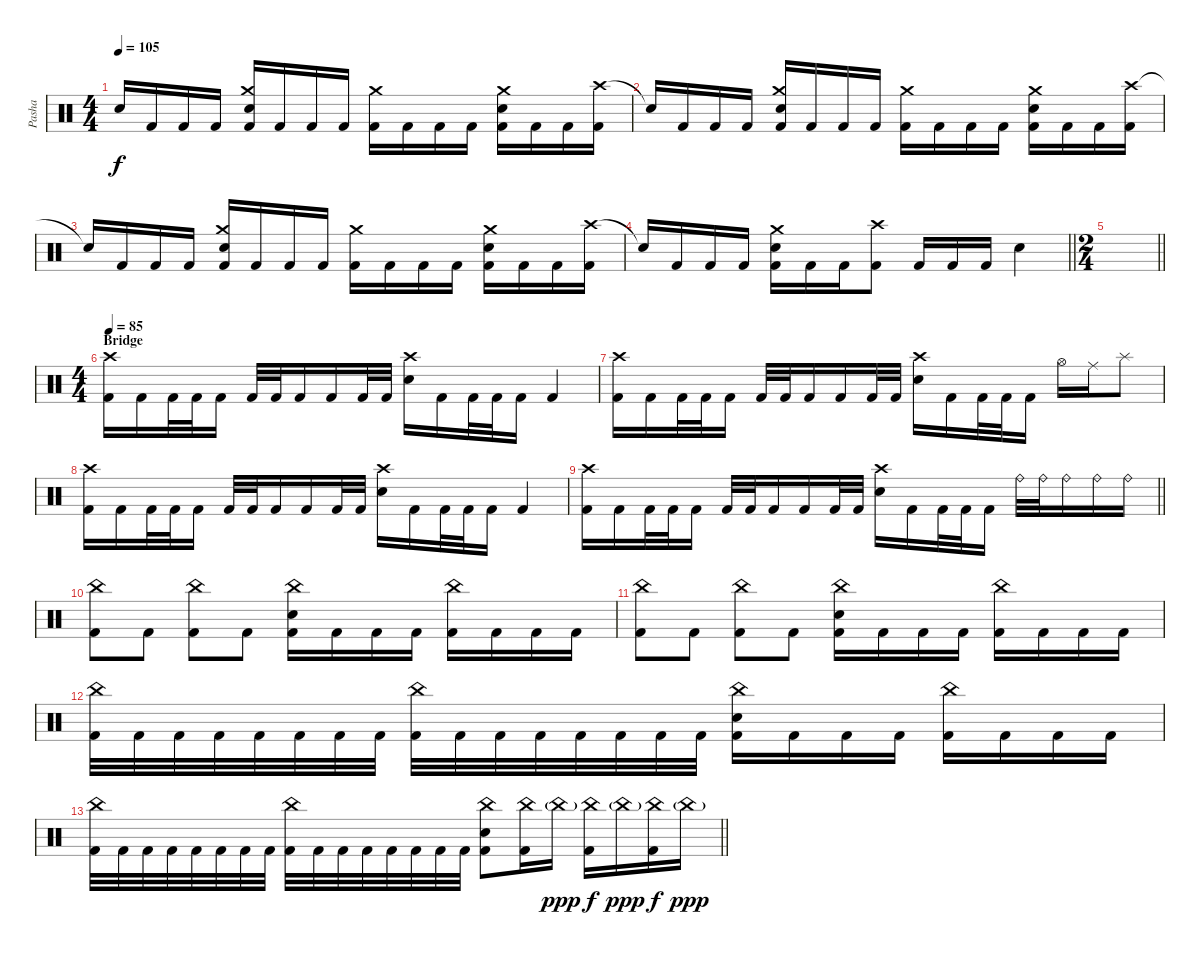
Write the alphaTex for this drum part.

\track ("Pasha" "Pasha") {instrument percussion}
\staff {score}
\articulation defaults
\ts (4 4)
\section ("" "")
\tempo 105
\clef neutral
\ks c "Snare (hit)"{t}.16{dy f} "Kick (hit) 2".16 "Kick (hit) 2".16 "Kick (hit) 2".16
("Crash medium (hit)" "Electric Snare (hit)" "Kick (hit) 2").16 "Kick (hit) 2".16 "Kick (hit) 2".16 "Kick (hit) 2".16 ("Crash medium (hit)" "Kick (hit) 2").16 "Kick (hit) 2".16 "Kick (hit) 2".16 "Kick (hit) 2".16 ("Crash medium (hit)" "Electric Snare (hit)" "Kick (hit) 2").16 "Kick (hit) 2".16 "Kick (hit) 2".16 ("Crash high (hit)" "Kick (hit) 2").16 |
"Snare (hit)"{t}.16 "Kick (hit) 2".16 "Kick (hit) 2".16 "Kick (hit) 2".16 ("Crash medium (hit)" "Electric Snare (hit)" "Kick (hit) 2").16 "Kick (hit) 2".16 "Kick (hit) 2".16 "Kick (hit) 2".16 ("Crash medium (hit)" "Kick (hit) 2").16 "Kick (hit) 2".16 "Kick (hit) 2".16 "Kick (hit) 2".16 ("Crash medium (hit)" "Electric Snare (hit)" "Kick (hit) 2").16 "Kick (hit) 2".16 "Kick (hit) 2".16 ("Crash high (hit)" "Kick (hit) 2").16 |
"Snare (hit)"{t}.16 "Kick (hit) 2".16 "Kick (hit) 2".16 "Kick (hit) 2".16 ("Crash medium (hit)" "Electric Snare (hit)" "Kick (hit) 2").16 "Kick (hit) 2".16 "Kick (hit) 2".16 "Kick (hit) 2".16 ("Crash medium (hit)" "Kick (hit) 2").16 "Kick (hit) 2".16 "Kick (hit) 2".16 "Kick (hit) 2".16 ("Crash medium (hit)" "Electric Snare (hit)" "Kick (hit) 2").16 "Kick (hit) 2".16 "Kick (hit) 2".16 ("Crash high (hit)" "Kick (hit) 2").16 |
\barLineRight lightlight "Snare (hit)"{t}.16 "Kick (hit) 2".16 "Kick (hit) 2".16 "Kick (hit) 2".16
("Crash medium (hit)" "Electric Snare (hit)" "Kick (hit) 2").16 "Kick (hit) 2".16 "Kick (hit) 2".16 ("Crash high (hit)" "Kick (hit) 2").8 "Kick (hit) 2".16 "Kick (hit) 2".16 "Kick (hit) 2".16 "Electric Snare (hit)".4 |
\ts (2 4)
\barLineRight lightlight
|
\ts (4 4)
\section ("" "Bridge")
\tempo 85
("Crash high (hit)" "Kick (hit) 2").16 "Kick (hit) 2".16 "Kick (hit) 2".32 "Kick (hit) 2".32 "Kick (hit) 2".16 "Kick (hit) 2".32 "Kick (hit) 2".32 "Kick (hit) 2".16 "Kick (hit) 2".16 "Kick (hit) 2".32 "Kick (hit) 2".32 ("Crash high (hit)" "Electric Snare (hit)").16 "Kick (hit) 2".16 "Kick (hit) 2".32 "Kick (hit) 2".32 "Kick (hit) 2".16 "Kick (hit) 2".4 |
("Crash high (hit)" "Kick (hit) 2").16 "Kick (hit) 2".16 "Kick (hit) 2".32 "Kick (hit) 2".32 "Kick (hit) 2".16 "Kick (hit) 2".32 "Kick (hit) 2".32 "Kick (hit) 2".16 "Kick (hit) 2".16 "Kick (hit) 2".32 "Kick (hit) 2".32 ("Crash high (hit)" "Electric Snare (hit)").16 "Kick (hit) 2".16 "Kick (hit) 2".32 "Kick (hit) 2".32 "Kick (hit) 2".16 "Hi-Hat (open)".16 "Ride (middle)".16 "Splash (hit)".8 |
("Crash high (hit)" "Kick (hit) 2").16 "Kick (hit) 2".16 "Kick (hit) 2".32 "Kick (hit) 2".32 "Kick (hit) 2".16 "Kick (hit) 2".32 "Kick (hit) 2".32 "Kick (hit) 2".16 "Kick (hit) 2".16 "Kick (hit) 2".32 "Kick (hit) 2".32 ("Crash high (hit)" "Electric Snare (hit)").16 "Kick (hit) 2".16 "Kick (hit) 2".32 "Kick (hit) 2".32 "Kick (hit) 2".16 "Kick (hit) 2".4 |
\barLineRight lightlight
("Crash high (hit)" "Kick (hit) 2").16 "Kick (hit) 2".16 "Kick (hit) 2".32 "Kick (hit) 2".32 "Kick (hit) 2".16 "Kick (hit) 2".32 "Kick (hit) 2".32 "Kick (hit) 2".16 "Kick (hit) 2".16 "Kick (hit) 2".32 "Kick (hit) 2".32 ("Crash high (hit)" "Electric Snare (hit)").16 "Kick (hit) 2".16 "Kick (hit) 2".32 "Kick (hit) 2".32 "Kick (hit) 2".16 "Ride (bell)".32 "Ride (bell)".32 "Ride (bell)".16 "Ride (bell)".16 "Ride (bell)".16 |
\section ("" "")
("China (hit)" "Kick (hit) 2").8 "Kick (hit) 2".8 ("China (hit)" "Kick (hit) 2").8 "Kick (hit) 2".8 ("China (hit)" "Electric Snare (hit)" "Kick (hit) 2").16 "Kick (hit) 2".16 "Kick (hit) 2".16 "Kick (hit) 2".16 ("China (hit)" "Kick (hit) 2").16 "Kick (hit) 2".16 "Kick (hit) 2".16 "Kick (hit) 2".16 |
("China (hit)" "Kick (hit) 2").8 "Kick (hit) 2".8 ("China (hit)" "Kick (hit) 2").8 "Kick (hit) 2".8 ("China (hit)" "Electric Snare (hit)" "Kick (hit) 2").16 "Kick (hit) 2".16 "Kick (hit) 2".16 "Kick (hit) 2".16 ("China (hit)" "Kick (hit) 2").16 "Kick (hit) 2".16 "Kick (hit) 2".16 "Kick (hit) 2".16 |
("China (hit)" "Kick (hit) 2").32 "Kick (hit) 2".32 "Kick (hit) 2".32 "Kick (hit) 2".32 "Kick (hit) 2".32 "Kick (hit) 2".32 "Kick (hit) 2".32 "Kick (hit) 2".32 ("China (hit)" "Kick (hit) 2").32 "Kick (hit) 2".32 "Kick (hit) 2".32 "Kick (hit) 2".32 "Kick (hit) 2".32 "Kick (hit) 2".32 "Kick (hit) 2".32 "Kick (hit) 2".32 ("China (hit)" "Electric Snare (hit)" "Kick (hit) 2").16 "Kick (hit) 2".16 "Kick (hit) 2".16 "Kick (hit) 2".16 ("China (hit)" "Kick (hit) 2").16 "Kick (hit) 2".16 "Kick (hit) 2".16 "Kick (hit) 2".16 |
\barLineRight lightlight
("China (hit)" "Kick (hit) 2").32 "Kick (hit) 2".32 "Kick (hit) 2".32 "Kick (hit) 2".32 "Kick (hit) 2".32 "Kick (hit) 2".32 "Kick (hit) 2".32 "Kick (hit) 2".32 ("China (hit)" "Kick (hit) 2").32 "Kick (hit) 2".32 "Kick (hit) 2".32 "Kick (hit) 2".32 "Kick (hit) 2".32 "Kick (hit) 2".32 "Kick (hit) 2".32 "Kick (hit) 2".32 ("China (hit)" "Electric Snare (hit)" "Kick (hit) 2").8 ("China (hit)" "Kick (hit) 2").16 "China (hit)"{g}.16{dy ppp} ("China (hit)" "Kick (hit) 2").16{dy f} "China (hit)"{g}.16{dy ppp} ("China (hit)" "Kick (hit) 2").16{dy f} "China (hit)"{g}.16{dy ppp}
